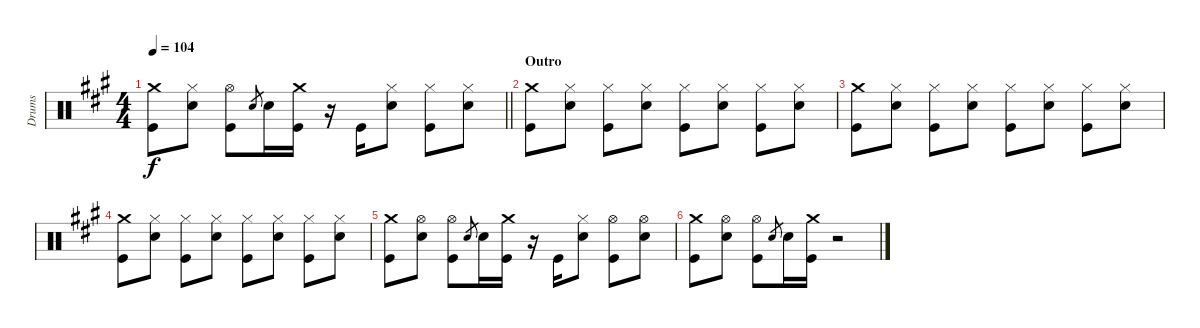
\track ("Drums" "Drums") {instrument percussion}
\staff {score}
\articulation defaults
\ts (4 4)
\tempo 104
\clef neutral
\barLineRight lightlight
\ks a
("Crash medium (hit)" "Kick (hit)").8{dy f} ("Hi-Hat (closed)" "Electric Snare (hit)").8 ("Hi-Hat (open)" "Kick (hit)").8 "Electric Snare (hit)".8{gr} "Electric Snare (hit)".16 ("Crash medium (hit)" "Kick (hit)").16 r.16 "Kick (hit)".16 ("Hi-Hat (closed)" "Electric Snare (hit)").8 ("Hi-Hat (closed)" "Kick (hit)").8 ("Hi-Hat (closed)" "Electric Snare (hit)").8 |
\section ("" "Outro")
("Crash medium (hit)" "Kick (hit)").8 ("Hi-Hat (closed)" "Electric Snare (hit)").8 ("Hi-Hat (closed)" "Kick (hit)").8 ("Hi-Hat (closed)" "Electric Snare (hit)").8 ("Hi-Hat (closed)" "Kick (hit)").8 ("Hi-Hat (closed)" "Electric Snare (hit)").8 ("Hi-Hat (closed)" "Kick (hit)").8 ("Hi-Hat (closed)" "Electric Snare (hit)").8 |
("Crash medium (hit)" "Kick (hit)").8 ("Hi-Hat (closed)" "Electric Snare (hit)").8 ("Hi-Hat (closed)" "Kick (hit)").8 ("Hi-Hat (closed)" "Electric Snare (hit)").8 ("Hi-Hat (closed)" "Kick (hit)").8 ("Hi-Hat (closed)" "Electric Snare (hit)").8 ("Hi-Hat (closed)" "Kick (hit)").8 ("Hi-Hat (closed)" "Electric Snare (hit)").8 |
("Crash medium (hit)" "Kick (hit)").8 ("Hi-Hat (closed)" "Electric Snare (hit)").8 ("Hi-Hat (closed)" "Kick (hit)").8 ("Hi-Hat (closed)" "Electric Snare (hit)").8 ("Hi-Hat (closed)" "Kick (hit)").8 ("Hi-Hat (closed)" "Electric Snare (hit)").8 ("Hi-Hat (closed)" "Kick (hit)").8 ("Hi-Hat (closed)" "Electric Snare (hit)").8 |
("Crash medium (hit)" "Kick (hit)").8 ("Hi-Hat (open)" "Electric Snare (hit)").8 ("Hi-Hat (open)" "Kick (hit)").8 "Electric Snare (hit)".8{gr} "Electric Snare (hit)".16 ("Crash medium (hit)" "Kick (hit)").16 r.16 "Kick (hit)".16 ("Hi-Hat (closed)" "Electric Snare (hit)").8 ("Hi-Hat (open)" "Kick (hit)").8 ("Hi-Hat (open)" "Electric Snare (hit)").8 |
("Crash medium (hit)" "Kick (hit)").8 ("Hi-Hat (open)" "Electric Snare (hit)").8 ("Hi-Hat (open)" "Kick (hit)").8 "Electric Snare (hit)".8{gr} "Electric Snare (hit)".16 ("Crash medium (hit)" "Kick (hit)").16 r.2
